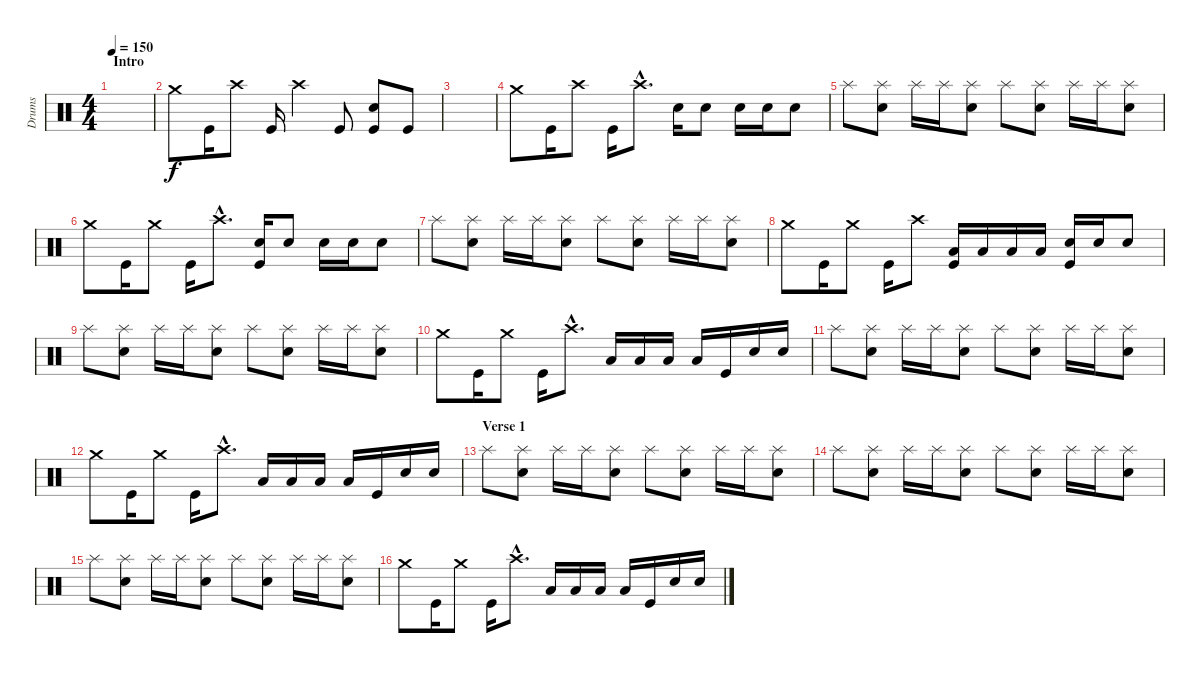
\track ("Drums" "Drums") {instrument percussion}
\staff {score}
\articulation defaults
\ts (4 4)
\section ("" "Intro")
\tempo 150
\clef neutral
\ks c
|
"Crash medium (hit)".8 "Kick (hit)".16 "Crash high (hit)".8 "Kick (hit)".16 "Crash high (hit)".4 "Kick (hit)".8 ("Snare (hit) 2" "Kick (hit)").8 "Kick (hit)".8 |
|
"Crash medium (hit)".8 "Kick (hit)".16 "Crash high (hit)".8 "Kick (hit)".16 "Crash high (hit)"{hac}.8{d} "Snare (hit) 2".16 "Snare (hit) 2".8 "Snare (hit) 2".16 "Snare (hit) 2".16 "Snare (hit) 2".8 |
"Splash (hit)".8 ("Splash (hit)" "Snare (hit) 2").8 "Splash (hit)".16 "Splash (hit)".16 ("Splash (hit)" "Snare (hit) 2").8 "Splash (hit)".8 ("Splash (hit)" "Snare (hit) 2").8 "Splash (hit)".16 "Splash (hit)".16 ("Splash (hit)" "Snare (hit) 2").8 |
"Crash medium (hit)".8 "Kick (hit)".16 "Crash medium (hit)".8 "Kick (hit)".16 "Crash high (hit)"{hac}.8{d} ("Snare (hit) 2" "Kick (hit)").16 "Snare (hit) 2".8 "Snare (hit) 2".16 "Snare (hit) 2".16 "Snare (hit) 2".8 |
"Splash (hit)".8 ("Splash (hit)" "Snare (hit) 2").8 "Splash (hit)".16 "Splash (hit)".16 ("Splash (hit)" "Snare (hit) 2").8 "Splash (hit)".8 ("Splash (hit)" "Snare (hit) 2").8 "Splash (hit)".16 "Splash (hit)".16 ("Splash (hit)" "Snare (hit) 2").8 |
"Crash medium (hit)".8 "Kick (hit)".16 "Crash medium (hit)".8 "Kick (hit)".16 "Crash high (hit)".8 ("Low Tom (hit)" "Kick (hit)").16 "Low Tom (hit)".16 "Low Tom (hit)".16 "Low Tom (hit)".16 ("Snare (hit) 2" "Kick (hit)").16 "Snare (hit) 2".16 "Snare (hit) 2".8 |
"Splash (hit)".8 ("Splash (hit)" "Snare (hit) 2").8 "Splash (hit)".16 "Splash (hit)".16 ("Splash (hit)" "Snare (hit) 2").8 "Splash (hit)".8 ("Splash (hit)" "Snare (hit) 2").8 "Splash (hit)".16 "Splash (hit)".16 ("Splash (hit)" "Snare (hit) 2").8 |
"Crash medium (hit)".8 "Kick (hit)".16 "Crash medium (hit)".8 "Kick (hit)".16 "Crash high (hit)"{hac}.8{d} "Low Tom (hit)".16 "Low Tom (hit)".16 "Low Tom (hit)".16 "Low Tom (hit)".16 "Kick (hit)".16 "Snare (hit) 2".16 "Snare (hit) 2".16 |
"Splash (hit)".8 ("Splash (hit)" "Snare (hit) 2").8 "Splash (hit)".16 "Splash (hit)".16 ("Splash (hit)" "Snare (hit) 2").8 "Splash (hit)".8 ("Splash (hit)" "Snare (hit) 2").8 "Splash (hit)".16 "Splash (hit)".16 ("Splash (hit)" "Snare (hit) 2").8 |
"Crash medium (hit)".8 "Kick (hit)".16 "Crash medium (hit)".8 "Kick (hit)".16 "Crash high (hit)"{hac}.8{d} "Low Tom (hit)".16 "Low Tom (hit)".16 "Low Tom (hit)".16 "Low Tom (hit)".16 "Kick (hit)".16 "Snare (hit) 2".16 "Snare (hit) 2".16 |
\section ("" "Verse 1")
"Splash (hit)".8 ("Splash (hit)" "Snare (hit) 2").8 "Splash (hit)".16 "Splash (hit)".16 ("Splash (hit)" "Snare (hit) 2").8 "Splash (hit)".8 ("Splash (hit)" "Snare (hit) 2").8 "Splash (hit)".16 "Splash (hit)".16 ("Splash (hit)" "Snare (hit) 2").8 |
"Splash (hit)".8 ("Splash (hit)" "Snare (hit) 2").8 "Splash (hit)".16 "Splash (hit)".16 ("Splash (hit)" "Snare (hit) 2").8 "Splash (hit)".8 ("Splash (hit)" "Snare (hit) 2").8 "Splash (hit)".16 "Splash (hit)".16 ("Splash (hit)" "Snare (hit) 2").8 |
"Splash (hit)".8 ("Splash (hit)" "Snare (hit) 2").8 "Splash (hit)".16 "Splash (hit)".16 ("Splash (hit)" "Snare (hit) 2").8 "Splash (hit)".8 ("Splash (hit)" "Snare (hit) 2").8 "Splash (hit)".16 "Splash (hit)".16 ("Splash (hit)" "Snare (hit) 2").8 |
"Crash medium (hit)".8 "Kick (hit)".16 "Crash medium (hit)".8 "Kick (hit)".16 "Crash high (hit)"{hac}.8{d} "Low Tom (hit)".16 "Low Tom (hit)".16 "Low Tom (hit)".16 "Low Tom (hit)".16 "Kick (hit)".16 "Snare (hit) 2".16 "Snare (hit) 2".16
